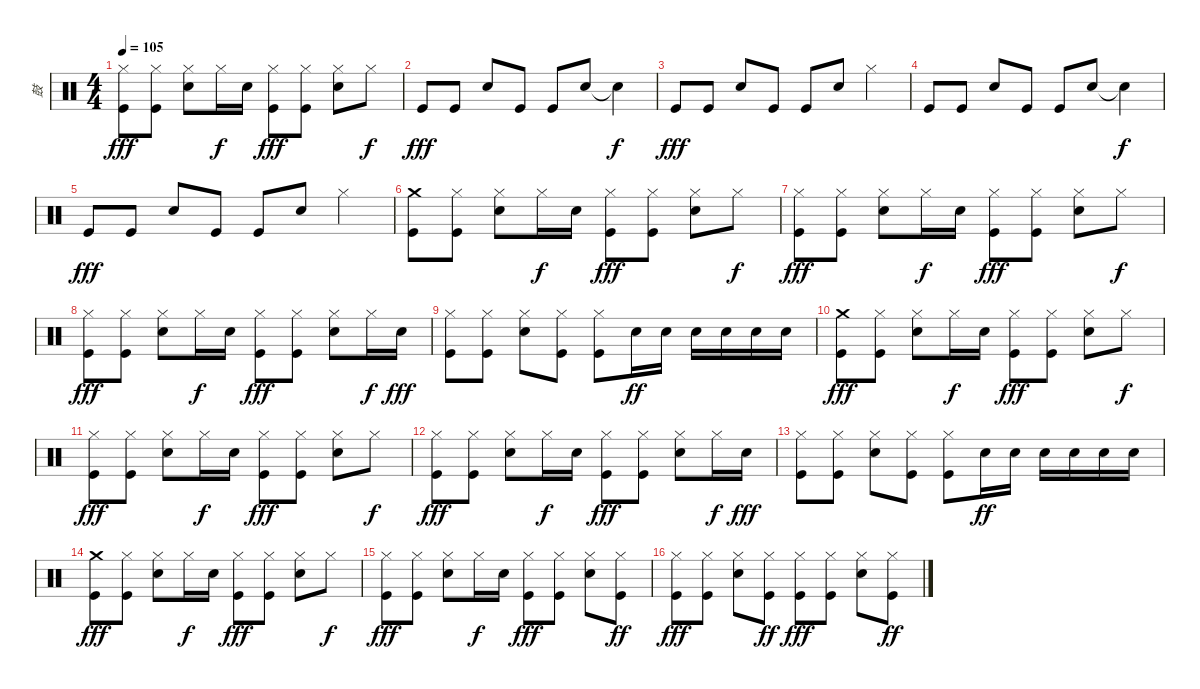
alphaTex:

\track ("鼓" "鼓") {instrument percussion}
\staff {score}
\articulation defaults
\ts (4 4)
\tempo 105
\clef neutral
\ks c
("Hi-Hat (closed)" "Kick (hit)").8{dy fff} ("Hi-Hat (closed)" "Kick (hit)").8 ("Hi-Hat (closed)" "Electric Snare (hit)").8 "Hi-Hat (closed)".16{dy f} "Electric Snare (hit)".16 ("Hi-Hat (closed)" "Kick (hit)").8{dy fff} ("Hi-Hat (closed)" "Kick (hit)").8 ("Hi-Hat (closed)" "Electric Snare (hit)").8 "Hi-Hat (closed)".8{dy f} |
"Kick (hit)".8{dy fff} "Kick (hit)".8 "Electric Snare (hit)".8 "Kick (hit)".8 "Kick (hit)".8 "Electric Snare (hit)".8 "Snare (hit)"{t}.4{dy f} |
"Kick (hit)".8{dy fff} "Kick (hit)".8 "Electric Snare (hit)".8 "Kick (hit)".8 "Kick (hit)".8 "Electric Snare (hit)".8 "Hi-Hat (closed)".4 |
"Kick (hit)".8 "Kick (hit)".8 "Electric Snare (hit)".8 "Kick (hit)".8 "Kick (hit)".8 "Electric Snare (hit)".8 "Snare (hit)"{t}.4{dy f} |
"Kick (hit)".8{dy fff} "Kick (hit)".8 "Electric Snare (hit)".8 "Kick (hit)".8 "Kick (hit)".8 "Electric Snare (hit)".8 "Hi-Hat (closed)".4 |
("Crash medium (hit)" "Kick (hit)").8 ("Hi-Hat (closed)" "Kick (hit)").8 ("Hi-Hat (closed)" "Electric Snare (hit)").8 "Hi-Hat (closed)".16{dy f} "Electric Snare (hit)".16 ("Hi-Hat (closed)" "Kick (hit)").8{dy fff} ("Hi-Hat (closed)" "Kick (hit)").8 ("Hi-Hat (closed)" "Electric Snare (hit)").8 "Hi-Hat (closed)".8{dy f} |
("Hi-Hat (closed)" "Kick (hit)").8{dy fff} ("Hi-Hat (closed)" "Kick (hit)").8 ("Hi-Hat (closed)" "Electric Snare (hit)").8 "Hi-Hat (closed)".16{dy f} "Electric Snare (hit)".16 ("Hi-Hat (closed)" "Kick (hit)").8{dy fff} ("Hi-Hat (closed)" "Kick (hit)").8 ("Hi-Hat (closed)" "Electric Snare (hit)").8 "Hi-Hat (closed)".8{dy f} |
("Hi-Hat (closed)" "Kick (hit)").8{dy fff} ("Hi-Hat (closed)" "Kick (hit)").8 ("Hi-Hat (closed)" "Electric Snare (hit)").8 "Hi-Hat (closed)".16{dy f} "Electric Snare (hit)".16 ("Hi-Hat (closed)" "Kick (hit)").8{dy fff} ("Hi-Hat (closed)" "Kick (hit)").8 ("Hi-Hat (closed)" "Electric Snare (hit)").8 "Hi-Hat (closed)".16{dy f} "Electric Snare (hit)".16{dy fff} |
("Hi-Hat (closed)" "Kick (hit)").8 ("Hi-Hat (closed)" "Kick (hit)").8 ("Hi-Hat (closed)" "Electric Snare (hit)").8 ("Hi-Hat (closed)" "Kick (hit)").8 ("Hi-Hat (closed)" "Kick (hit)").8 "Electric Snare (hit)".16{dy ff} "Electric Snare (hit)".16 "Electric Snare (hit)".16 "Electric Snare (hit)".16 "Electric Snare (hit)".16 "Electric Snare (hit)".16 |
("Crash medium (hit)" "Kick (hit)").8{dy fff} ("Hi-Hat (closed)" "Kick (hit)").8 ("Hi-Hat (closed)" "Electric Snare (hit)").8 "Hi-Hat (closed)".16{dy f} "Electric Snare (hit)".16 ("Hi-Hat (closed)" "Kick (hit)").8{dy fff} ("Hi-Hat (closed)" "Kick (hit)").8 ("Hi-Hat (closed)" "Electric Snare (hit)").8 "Hi-Hat (closed)".8{dy f} |
("Hi-Hat (closed)" "Kick (hit)").8{dy fff} ("Hi-Hat (closed)" "Kick (hit)").8 ("Hi-Hat (closed)" "Electric Snare (hit)").8 "Hi-Hat (closed)".16{dy f} "Electric Snare (hit)".16 ("Hi-Hat (closed)" "Kick (hit)").8{dy fff} ("Hi-Hat (closed)" "Kick (hit)").8 ("Hi-Hat (closed)" "Electric Snare (hit)").8 "Hi-Hat (closed)".8{dy f} |
("Hi-Hat (closed)" "Kick (hit)").8{dy fff} ("Hi-Hat (closed)" "Kick (hit)").8 ("Hi-Hat (closed)" "Electric Snare (hit)").8 "Hi-Hat (closed)".16{dy f} "Electric Snare (hit)".16 ("Hi-Hat (closed)" "Kick (hit)").8{dy fff} ("Hi-Hat (closed)" "Kick (hit)").8 ("Hi-Hat (closed)" "Electric Snare (hit)").8 "Hi-Hat (closed)".16{dy f} "Electric Snare (hit)".16{dy fff} |
("Hi-Hat (closed)" "Kick (hit)").8 ("Hi-Hat (closed)" "Kick (hit)").8 ("Hi-Hat (closed)" "Electric Snare (hit)").8 ("Hi-Hat (closed)" "Kick (hit)").8 ("Hi-Hat (closed)" "Kick (hit)").8 "Electric Snare (hit)".16{dy ff} "Electric Snare (hit)".16 "Electric Snare (hit)".16 "Electric Snare (hit)".16 "Electric Snare (hit)".16 "Electric Snare (hit)".16 |
("Crash medium (hit)" "Kick (hit)").8{dy fff} ("Hi-Hat (closed)" "Kick (hit)").8 ("Hi-Hat (closed)" "Electric Snare (hit)").8 "Hi-Hat (closed)".16{dy f} "Electric Snare (hit)".16 ("Hi-Hat (closed)" "Kick (hit)").8{dy fff} ("Hi-Hat (closed)" "Kick (hit)").8 ("Hi-Hat (closed)" "Electric Snare (hit)").8 "Hi-Hat (closed)".8{dy f} |
("Hi-Hat (closed)" "Kick (hit)").8{dy fff} ("Hi-Hat (closed)" "Kick (hit)").8 ("Hi-Hat (closed)" "Electric Snare (hit)").8 "Hi-Hat (closed)".16{dy f} "Electric Snare (hit)".16 ("Hi-Hat (closed)" "Kick (hit)").8{dy fff} ("Hi-Hat (closed)" "Kick (hit)").8 ("Hi-Hat (closed)" "Electric Snare (hit)").8 ("Hi-Hat (closed)" "Kick (hit)").8{dy ff} |
("Hi-Hat (closed)" "Kick (hit)").8{dy fff} ("Hi-Hat (closed)" "Kick (hit)").8 ("Hi-Hat (closed)" "Electric Snare (hit)").8 ("Hi-Hat (closed)" "Kick (hit)").8{dy ff} ("Hi-Hat (closed)" "Kick (hit)").8{dy fff} ("Hi-Hat (closed)" "Kick (hit)").8 ("Hi-Hat (closed)" "Electric Snare (hit)").8 ("Hi-Hat (closed)" "Kick (hit)").8{dy ff}
